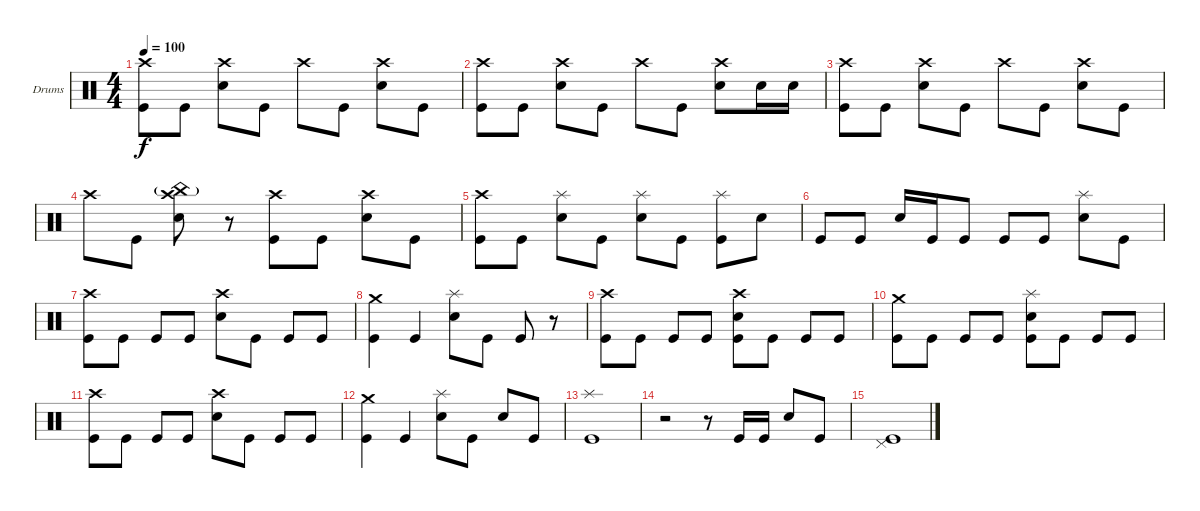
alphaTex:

\bracketExtendMode groupsimilarinstruments
\firstSystemTrackNameOrientation horizontal
\otherSystemsTrackNameOrientation horizontal
\track ("Drumkit" "Drums") {instrument percussion}
\staff {score}
\articulation defaults
\ts (4 4)
\tempo 100
\clef neutral
\ks c
("Crash high (hit)" "Kick (hit)").8{dy f} "Kick (hit)".8 ("Crash high (hit)" "Snare (hit) 2").8 "Kick (hit)".8 "Crash high (hit)".8 "Kick (hit)".8 ("Crash high (hit)" "Snare (hit) 2").8 "Kick (hit)".8 |
("Crash high (hit)" "Kick (hit)").8 "Kick (hit)".8 ("Crash high (hit)" "Snare (hit) 2").8 "Kick (hit)".8 "Crash high (hit)".8 "Kick (hit)".8 ("Crash high (hit)" "Snare (hit) 2").8 "Snare (hit) 2".16 "Snare (hit) 2".16 |
("Crash high (hit)" "Kick (hit)").8 "Kick (hit)".8 ("Crash high (hit)" "Snare (hit) 2").8 "Kick (hit)".8 "Crash high (hit)".8 "Kick (hit)".8 ("Crash high (hit)" "Snare (hit) 2").8 "Kick (hit)".8 |
"Crash high (hit)".8 "Kick (hit)".8 ("China (hit)"{g} "Crash high (hit)" "Snare (hit) 2").8 r.8 ("Crash high (hit)" "Kick (hit)").8 "Kick (hit)".8 ("Crash high (hit)" "Snare (hit) 2").8 "Kick (hit)".8 |
("Crash high (hit)" "Kick (hit)").8 "Kick (hit)".8 ("Splash (hit)" "Snare (hit) 2").8 "Kick (hit)".8 ("Splash (hit)" "Snare (hit) 2").8 "Kick (hit)".8 ("Splash (hit)" "Kick (hit)").8 "Snare (hit) 2".8 |
"Kick (hit)".8 "Kick (hit)".8 "Snare (hit) 2".16 "Kick (hit)".16 "Kick (hit)".8 "Kick (hit)".8 "Kick (hit)".8 ("Splash (hit)" "Snare (hit) 2").8 "Kick (hit)".8 |
("Crash high (hit)" "Kick (hit)").8 "Kick (hit)".8 "Kick (hit)".8 "Kick (hit)".8 ("Crash high (hit)" "Snare (hit) 2").8 "Kick (hit)".8 "Kick (hit)".8 "Kick (hit)".8 |
("Crash medium (hit)" "Kick (hit)").4 "Kick (hit)".4 ("Splash (hit)" "Snare (hit) 2").8 "Kick (hit)".8 "Kick (hit)".8 r.8 |
("Crash high (hit)" "Kick (hit)").8 "Kick (hit)".8 "Kick (hit)".8 "Kick (hit)".8 ("Crash high (hit)" "Snare (hit) 2" "Kick (hit)").8 "Kick (hit)".8 "Kick (hit)".8 "Kick (hit)".8 |
("Crash medium (hit)" "Kick (hit)").8 "Kick (hit)".8 "Kick (hit)".8 "Kick (hit)".8 ("Splash (hit)" "Snare (hit) 2" "Kick (hit)").8 "Kick (hit)".8 "Kick (hit)".8 "Kick (hit)".8 |
("Crash high (hit)" "Kick (hit)").8 "Kick (hit)".8 "Kick (hit)".8 "Kick (hit)".8 ("Crash high (hit)" "Snare (hit) 2").8 "Kick (hit)".8 "Kick (hit)".8 "Kick (hit)".8 |
("Crash medium (hit)" "Kick (hit)").4 "Kick (hit)".4 ("Splash (hit)" "Snare (hit) 2").8 "Kick (hit)".8 "Snare (hit) 2".8 "Kick (hit)".8 |
("Splash (hit)" "Kick (hit)").1 |
r.2 r.8 "Kick (hit)".16 "Kick (hit)".16 "Snare (hit) 2".8 "Kick (hit)".8 |
("Pedal Hi-Hat (hit)" "Kick (hit)").1
